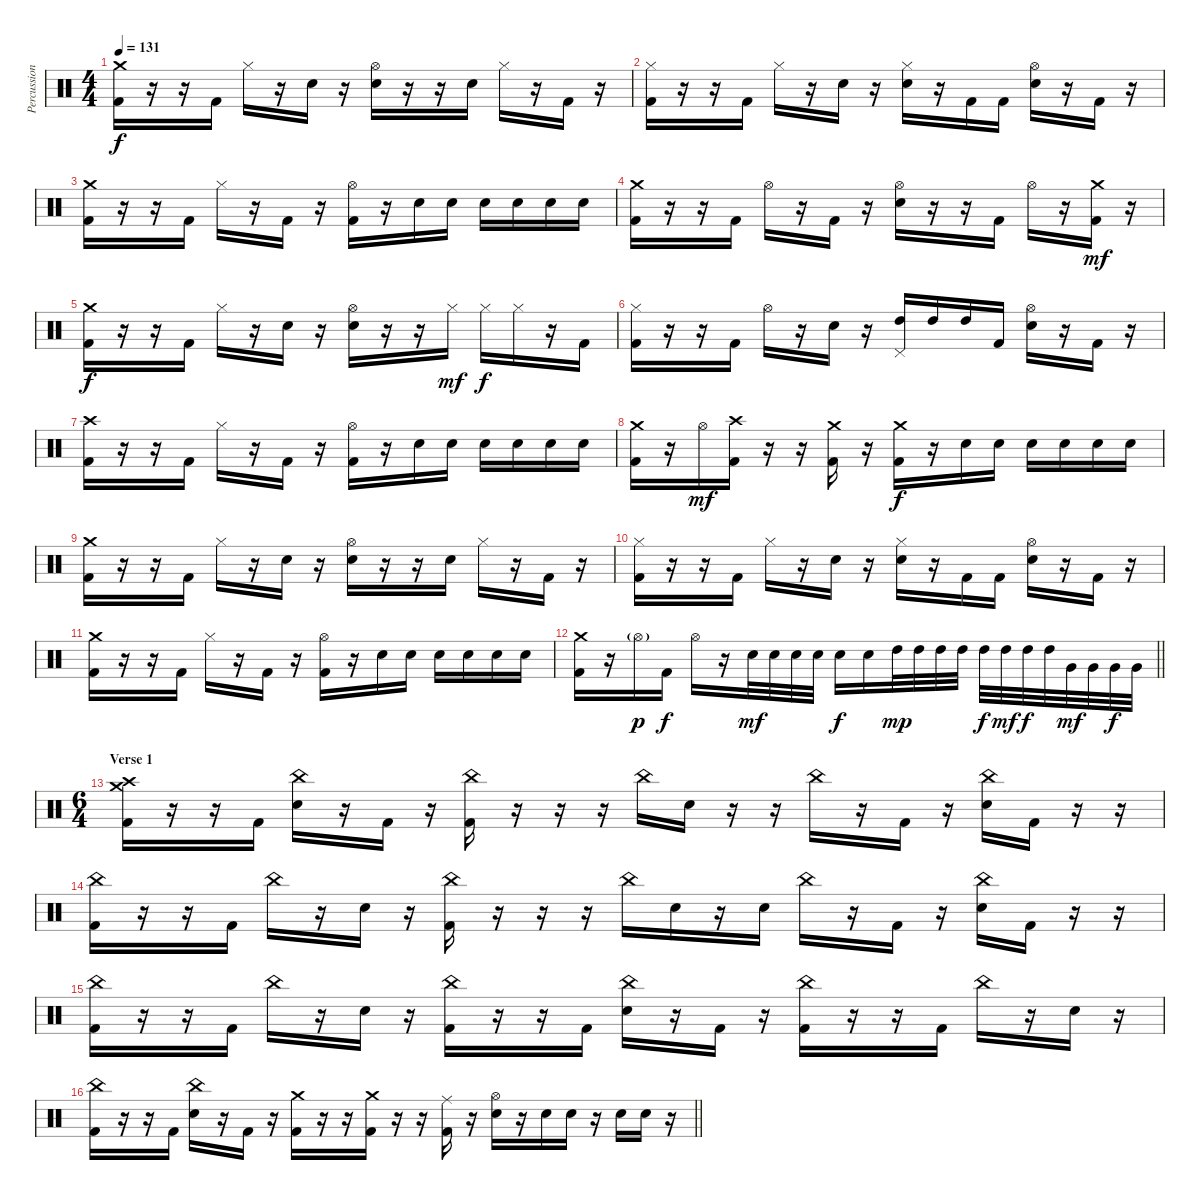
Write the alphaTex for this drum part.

\track ("Percussion" "Percussion") {instrument percussion}
\staff {score}
\articulation defaults
\ts (4 4)
\tempo 131
\clef neutral
\ks c
("Crash medium (hit)" "Kick (hit) 2").16{dy f} r.16 r.16 "Kick (hit) 2".16 "Hi-Hat (closed)".16 r.16 "Snare (hit) 2".16 r.16 ("Hi-Hat (open)" "Snare (hit) 2").16 r.16 r.16 "Snare (hit) 2".16 "Hi-Hat (closed)".16 r.16 "Kick (hit) 2".16 r.16 |
("Hi-Hat (closed)" "Kick (hit) 2").16 r.16 r.16 "Kick (hit) 2".16 "Hi-Hat (closed)".16 r.16 "Snare (hit) 2".16 r.16 ("Hi-Hat (closed)" "Snare (hit) 2").16 r.16 "Kick (hit) 2".16 "Kick (hit) 2".16 ("Hi-Hat (open)" "Snare (hit) 2").16 r.16 "Kick (hit) 2".16 r.16 |
("Crash medium (hit)" "Kick (hit) 2").16 r.16 r.16 "Kick (hit) 2".16 "Hi-Hat (closed)".16 r.16 "Kick (hit) 2".16 r.16 ("Hi-Hat (open)" "Kick (hit) 2").16 r.16 "Snare (hit) 2".16 "Snare (hit) 2".16 "Snare (hit) 2".16 "Snare (hit) 2".16 "Snare (hit) 2".16 "Snare (hit) 2".16 |
("Crash medium (hit)" "Kick (hit) 2").16 r.16 r.16 "Kick (hit) 2".16 "Hi-Hat (open)".16 r.16 "Kick (hit) 2".16 r.16 ("Hi-Hat (open)" "Snare (hit) 2").16 r.16 r.16 "Kick (hit) 2".16 "Hi-Hat (open)".16 r.16 ("Crash medium (hit)" "Kick (hit) 2").16{dy mf} r.16 |
("Crash medium (hit)" "Kick (hit) 2").16{dy f} r.16 r.16 "Kick (hit) 2".16 "Hi-Hat (closed)".16 r.16 "Snare (hit) 2".16 r.16 ("Hi-Hat (open)" "Snare (hit) 2").16 r.16 r.16 "Hi-Hat (closed)".16{dy mf} "Hi-Hat (closed)".16{dy f} "Hi-Hat (closed)".16 r.16 "Kick (hit) 2".16 |
("Hi-Hat (closed)" "Kick (hit) 2").16 r.16 r.16 "Kick (hit) 2".16 "Hi-Hat (open)".16 r.16 "Snare (hit) 2".16 r.16 ("Pedal Hi-Hat (hit)" "High Tom (hit)").16 "High Tom (hit)".16 "High Tom (hit)".16 "Kick (hit) 2".16 ("Hi-Hat (open)" "Snare (hit) 2").16 r.16 "Kick (hit) 2".16 r.16 |
("Crash high (hit)" "Kick (hit) 2").16 r.16 r.16 "Kick (hit) 2".16 "Hi-Hat (closed)".16 r.16 "Kick (hit) 2".16 r.16 ("Hi-Hat (open)" "Kick (hit) 2").16 r.16 "Snare (hit) 2".16 "Snare (hit) 2".16 "Snare (hit) 2".16 "Snare (hit) 2".16 "Snare (hit) 2".16 "Snare (hit) 2".16 |
("Crash medium (hit)" "Kick (hit) 2").16 r.16 "Hi-Hat (open)".16{dy mf} ("Crash high (hit)" "Kick (hit) 2").16 r.16 r.16 ("Crash medium (hit)" "Kick (hit) 2").16 r.16 ("Crash medium (hit)" "Kick (hit) 2").16{dy f} r.16 "Snare (hit) 2".16 "Snare (hit) 2".16 "Snare (hit) 2".16 "Snare (hit) 2".16 "Snare (hit) 2".16 "Snare (hit) 2".16 |
("Crash medium (hit)" "Kick (hit) 2").16 r.16 r.16 "Kick (hit) 2".16 "Hi-Hat (closed)".16 r.16 "Snare (hit) 2".16 r.16 ("Hi-Hat (open)" "Snare (hit) 2").16 r.16 r.16 "Snare (hit) 2".16 "Hi-Hat (closed)".16 r.16 "Kick (hit) 2".16 r.16 |
("Hi-Hat (closed)" "Kick (hit) 2").16 r.16 r.16 "Kick (hit) 2".16 "Hi-Hat (closed)".16 r.16 "Snare (hit) 2".16 r.16 ("Hi-Hat (closed)" "Snare (hit) 2").16 r.16 "Kick (hit) 2".16 "Kick (hit) 2".16 ("Hi-Hat (open)" "Snare (hit) 2").16 r.16 "Kick (hit) 2".16 r.16 |
("Crash medium (hit)" "Kick (hit) 2").16 r.16 r.16 "Kick (hit) 2".16 "Hi-Hat (closed)".16 r.16 "Kick (hit) 2".16 r.16 ("Hi-Hat (open)" "Kick (hit) 2").16 r.16 "Snare (hit) 2".16 "Snare (hit) 2".16 "Snare (hit) 2".16 "Snare (hit) 2".16 "Snare (hit) 2".16 "Snare (hit) 2".16 |
\barLineRight lightlight
("Crash medium (hit)" "Kick (hit) 2").16 r.16 "Hi-Hat (open)"{g}.16{dy p} "Kick (hit) 2".16{dy f} "Hi-Hat (open)".16 r.16 "Snare (hit) 2".32{dy mf} "Snare (hit) 2".32 "Snare (hit) 2".32 "Snare (hit) 2".32 "Snare (hit) 2".16{dy f} "Snare (hit) 2".16 "High Tom (hit)".32{dy mp} "High Tom (hit)".32 "High Tom (hit)".32 "High Tom (hit)".32 "High Tom (hit)".32{dy f} "High Tom (hit)".32{dy mf} "High Tom (hit)".32{dy f} "High Tom (hit)".32 "Very Low Tom (hit)".32{dy mf} "Very Low Tom (hit)".32 "Very Low Tom (hit)".32{dy f} "Very Low Tom (hit)".32 |
\ts (6 4)
\section ("" "Verse 1")
("Crash medium (hit)" "Crash high (hit)" "Kick (hit) 2").16 r.16 r.16 "Kick (hit) 2".16 ("China (hit)" "Snare (hit) 2").16 r.16 "Kick (hit) 2".16 r.16 ("China (hit)" "Kick (hit) 2").16 r.16 r.16 r.16 "China (hit)".16 "Snare (hit) 2".16 r.16 r.16 "China (hit)".16 r.16 "Kick (hit) 2".16 r.16 ("China (hit)" "Snare (hit) 2").16 "Kick (hit) 2".16 r.16 r.16 |
("China (hit)" "Kick (hit) 2").16 r.16 r.16 "Kick (hit) 2".16 "China (hit)".16 r.16 "Snare (hit) 2".16 r.16 ("China (hit)" "Kick (hit) 2").16 r.16 r.16 r.16 "China (hit)".16 "Snare (hit) 2".16 r.16 "Snare (hit) 2".16 "China (hit)".16 r.16 "Kick (hit) 2".16 r.16 ("China (hit)" "Snare (hit) 2").16 "Kick (hit) 2".16 r.16 r.16 |
("China (hit)" "Kick (hit) 2").16 r.16 r.16 "Kick (hit) 2".16 "China (hit)".16 r.16 "Snare (hit) 2".16 r.16 ("China (hit)" "Kick (hit) 2").16 r.16 r.16 "Kick (hit) 2".16 ("China (hit)" "Snare (hit) 2").16 r.16 "Kick (hit) 2".16 r.16 ("China (hit)" "Kick (hit) 2").16 r.16 r.16 "Kick (hit) 2".16 "China (hit)".16 r.16 "Snare (hit) 2".16 r.16 |
\barLineRight lightlight
("China (hit)" "Kick (hit) 2").16 r.16 r.16 "Kick (hit) 2".16 ("China (hit)" "Snare (hit) 2").16 r.16 "Kick (hit) 2".16 r.16 ("Crash medium (hit)" "Kick (hit) 2").16 r.16 r.16 ("Crash medium (hit)" "Kick (hit) 2").16 r.16 r.16 ("Ride (middle)" "Kick (hit) 2").16 r.16 ("Hi-Hat (open)" "Snare (hit) 2").16 r.16 "Snare (hit) 2".16 "Snare (hit) 2".16 r.16 "Snare (hit) 2".16 "Snare (hit) 2".16 r.16
